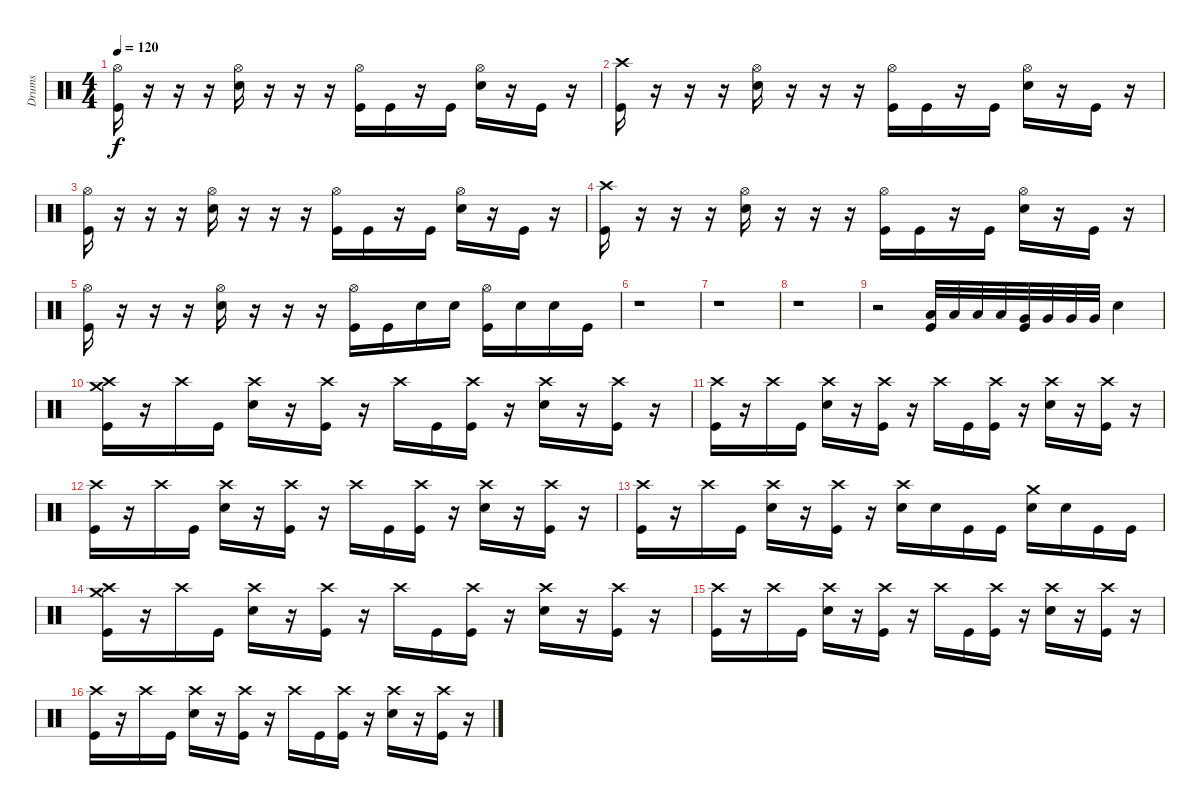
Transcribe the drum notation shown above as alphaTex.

\track ("Drums" "Drums") {instrument percussion}
\staff {score}
\articulation defaults
\ts (4 4)
\tempo 120
\clef neutral
\ks c
("Hi-Hat (open)" "Kick (hit)").16{dy f} r.16 r.16 r.16 ("Hi-Hat (open)" "Snare (hit) 2").16 r.16 r.16 r.16 ("Hi-Hat (open)" "Kick (hit)").16 "Kick (hit)".16 r.16 "Kick (hit)".16 ("Hi-Hat (open)" "Snare (hit) 2").16 r.16 "Kick (hit)".16 r.16 |
("Crash high (hit)" "Kick (hit)").16 r.16 r.16 r.16 ("Hi-Hat (open)" "Snare (hit) 2").16 r.16 r.16 r.16 ("Hi-Hat (open)" "Kick (hit)").16 "Kick (hit)".16 r.16 "Kick (hit)".16 ("Hi-Hat (open)" "Snare (hit) 2").16 r.16 "Kick (hit)".16 r.16 |
("Hi-Hat (open)" "Kick (hit)").16 r.16 r.16 r.16 ("Hi-Hat (open)" "Snare (hit) 2").16 r.16 r.16 r.16 ("Hi-Hat (open)" "Kick (hit)").16 "Kick (hit)".16 r.16 "Kick (hit)".16 ("Hi-Hat (open)" "Snare (hit) 2").16 r.16 "Kick (hit)".16 r.16 |
("Crash high (hit)" "Kick (hit)").16 r.16 r.16 r.16 ("Hi-Hat (open)" "Snare (hit) 2").16 r.16 r.16 r.16 ("Hi-Hat (open)" "Kick (hit)").16 "Kick (hit)".16 r.16 "Kick (hit)".16 ("Hi-Hat (open)" "Snare (hit) 2").16 r.16 "Kick (hit)".16 r.16 |
("Hi-Hat (open)" "Kick (hit)").16 r.16 r.16 r.16 ("Hi-Hat (open)" "Snare (hit) 2").16 r.16 r.16 r.16 ("Hi-Hat (open)" "Kick (hit)").16 "Kick (hit)".16 "Snare (hit) 2".16 "Snare (hit) 2".16 ("Hi-Hat (open)" "Kick (hit)").16 "Snare (hit) 2".16 "Snare (hit) 2".16 "Kick (hit)".16 |
r.1 |
r.1 |
r.1 |
r.2 ("Low Tom (hit)" "Kick (hit)").32 "Low Tom (hit)".32 "Low Tom (hit)".32 "Low Tom (hit)".32 ("Very Low Tom (hit)" "Kick (hit)").32 "Very Low Tom (hit)".32 "Very Low Tom (hit)".32 "Very Low Tom (hit)".32 "Snare (hit) 2".4 |
("Crash medium (hit)" "Crash high (hit)" "Kick (hit)").16 r.16 "Crash high (hit)".16 "Kick (hit)".16 ("Crash high (hit)" "Snare (hit) 2").16 r.16 ("Crash high (hit)" "Kick (hit)").16 r.16 "Crash high (hit)".16 "Kick (hit)".16 ("Crash high (hit)" "Kick (hit)").16 r.16 ("Crash high (hit)" "Snare (hit) 2").16 r.16 ("Crash high (hit)" "Kick (hit)").16 r.16 |
("Crash high (hit)" "Kick (hit)").16 r.16 "Crash high (hit)".16 "Kick (hit)".16 ("Crash high (hit)" "Snare (hit) 2").16 r.16 ("Crash high (hit)" "Kick (hit)").16 r.16 "Crash high (hit)".16 "Kick (hit)".16 ("Crash high (hit)" "Kick (hit)").16 r.16 ("Crash high (hit)" "Snare (hit) 2").16 r.16 ("Crash high (hit)" "Kick (hit)").16 r.16 |
("Crash high (hit)" "Kick (hit)").16 r.16 "Crash high (hit)".16 "Kick (hit)".16 ("Crash high (hit)" "Snare (hit) 2").16 r.16 ("Crash high (hit)" "Kick (hit)").16 r.16 "Crash high (hit)".16 "Kick (hit)".16 ("Crash high (hit)" "Kick (hit)").16 r.16 ("Crash high (hit)" "Snare (hit) 2").16 r.16 ("Crash high (hit)" "Kick (hit)").16 r.16 |
("Crash high (hit)" "Kick (hit)").16 r.16 "Crash high (hit)".16 "Kick (hit)".16 ("Crash high (hit)" "Snare (hit) 2").16 r.16 ("Crash high (hit)" "Kick (hit)").16 r.16 ("Crash high (hit)" "Snare (hit) 2").16 "Snare (hit) 2".16 "Kick (hit)".16 "Kick (hit)".16 ("Crash medium (hit)" "Snare (hit) 2").16 "Snare (hit) 2".16 "Kick (hit)".16 "Kick (hit)".16 |
("Crash medium (hit)" "Crash high (hit)" "Kick (hit)").16 r.16 "Crash high (hit)".16 "Kick (hit)".16 ("Crash high (hit)" "Snare (hit) 2").16 r.16 ("Crash high (hit)" "Kick (hit)").16 r.16 "Crash high (hit)".16 "Kick (hit)".16 ("Crash high (hit)" "Kick (hit)").16 r.16 ("Crash high (hit)" "Snare (hit) 2").16 r.16 ("Crash high (hit)" "Kick (hit)").16 r.16 |
("Crash high (hit)" "Kick (hit)").16 r.16 "Crash high (hit)".16 "Kick (hit)".16 ("Crash high (hit)" "Snare (hit) 2").16 r.16 ("Crash high (hit)" "Kick (hit)").16 r.16 "Crash high (hit)".16 "Kick (hit)".16 ("Crash high (hit)" "Kick (hit)").16 r.16 ("Crash high (hit)" "Snare (hit) 2").16 r.16 ("Crash high (hit)" "Kick (hit)").16 r.16 |
("Crash high (hit)" "Kick (hit)").16 r.16 "Crash high (hit)".16 "Kick (hit)".16 ("Crash high (hit)" "Snare (hit) 2").16 r.16 ("Crash high (hit)" "Kick (hit)").16 r.16 "Crash high (hit)".16 "Kick (hit)".16 ("Crash high (hit)" "Kick (hit)").16 r.16 ("Crash high (hit)" "Snare (hit) 2").16 r.16 ("Crash high (hit)" "Kick (hit)").16 r.16
